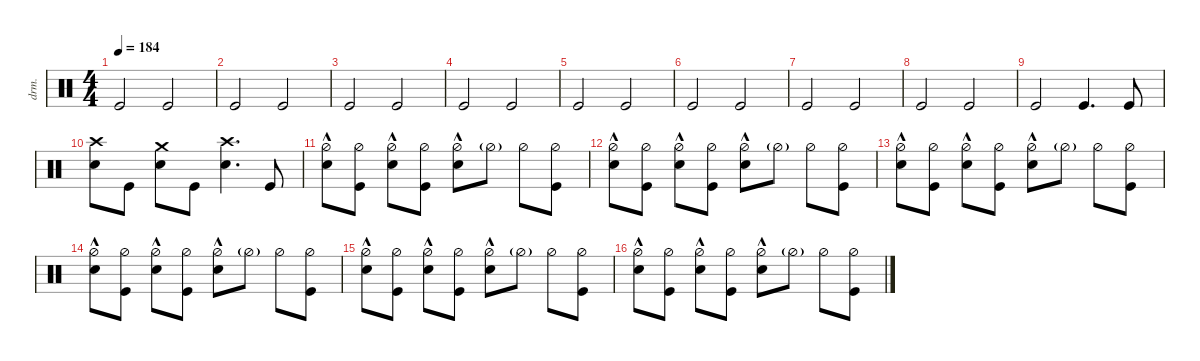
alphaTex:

\defaultSystemsLayout 4
\hideDynamics
\bracketExtendMode nobrackets
\otherSystemsTrackNameOrientation horizontal
\track ("Drums" "drm.") {defaultSystemsLayout 4 multiBarRest instrument percussion}
\staff {score}
\articulation defaults
\ts (4 4)
\tempo 184
\clef neutral
\ks c "Kick (hit)".2{dy f} "Kick (hit)".2
|
"Kick (hit)".2 "Kick (hit)".2 |
"Kick (hit)".2 "Kick (hit)".2 |
"Kick (hit)".2 "Kick (hit)".2 |
"Kick (hit)".2 "Kick (hit)".2 |
"Kick (hit)".2 "Kick (hit)".2 |
"Kick (hit)".2 "Kick (hit)".2 |
"Kick (hit)".2 "Kick (hit)".2 |
"Kick (hit)".2 "Kick (hit)".4{d} "Kick (hit)".8 |
("Snare (hit) 2" "Crash high (hit)").8 "Kick (hit)".8 ("Snare (hit) 2" "Crash medium (hit)").8 "Kick (hit)".8 ("Snare (hit) 2" "Crash high (hit)").4{d} "Kick (hit)".8 |
("Snare (hit) 2" "Hi-Hat (half)"{hac}).8 ("Kick (hit)" "Hi-Hat (half)").8 ("Snare (hit) 2" "Hi-Hat (half)"{hac}).8 ("Kick (hit)" "Hi-Hat (half)").8 ("Snare (hit) 2" "Hi-Hat (half)"{hac}).8 "Hi-Hat (half)"{g}.8 "Hi-Hat (half)".8 ("Hi-Hat (half)" "Kick (hit)").8 |
("Snare (hit) 2" "Hi-Hat (half)"{hac}).8 ("Kick (hit)" "Hi-Hat (half)").8 ("Snare (hit) 2" "Hi-Hat (half)"{hac}).8 ("Kick (hit)" "Hi-Hat (half)").8 ("Snare (hit) 2" "Hi-Hat (half)"{hac}).8 "Hi-Hat (half)"{g}.8 "Hi-Hat (half)".8 ("Hi-Hat (half)" "Kick (hit)").8 |
("Snare (hit) 2" "Hi-Hat (half)"{hac}).8 ("Kick (hit)" "Hi-Hat (half)").8 ("Snare (hit) 2" "Hi-Hat (half)"{hac}).8 ("Kick (hit)" "Hi-Hat (half)").8 ("Snare (hit) 2" "Hi-Hat (half)"{hac}).8 "Hi-Hat (half)"{g}.8 "Hi-Hat (half)".8 ("Hi-Hat (half)" "Kick (hit)").8 |
("Snare (hit) 2" "Hi-Hat (half)"{hac}).8 ("Kick (hit)" "Hi-Hat (half)").8 ("Snare (hit) 2" "Hi-Hat (half)"{hac}).8 ("Kick (hit)" "Hi-Hat (half)").8 ("Snare (hit) 2" "Hi-Hat (half)"{hac}).8 "Hi-Hat (half)"{g}.8 "Hi-Hat (half)".8 ("Hi-Hat (half)" "Kick (hit)").8 |
("Snare (hit) 2" "Hi-Hat (half)"{hac}).8 ("Kick (hit)" "Hi-Hat (half)").8 ("Snare (hit) 2" "Hi-Hat (half)"{hac}).8 ("Kick (hit)" "Hi-Hat (half)").8 ("Snare (hit) 2" "Hi-Hat (half)"{hac}).8 "Hi-Hat (half)"{g}.8 "Hi-Hat (half)".8 ("Hi-Hat (half)" "Kick (hit)").8 |
("Snare (hit) 2" "Hi-Hat (half)"{hac}).8 ("Kick (hit)" "Hi-Hat (half)").8 ("Snare (hit) 2" "Hi-Hat (half)"{hac}).8 ("Kick (hit)" "Hi-Hat (half)").8 ("Snare (hit) 2" "Hi-Hat (half)"{hac}).8 "Hi-Hat (half)"{g}.8 "Hi-Hat (half)".8 ("Hi-Hat (half)" "Kick (hit)").8
